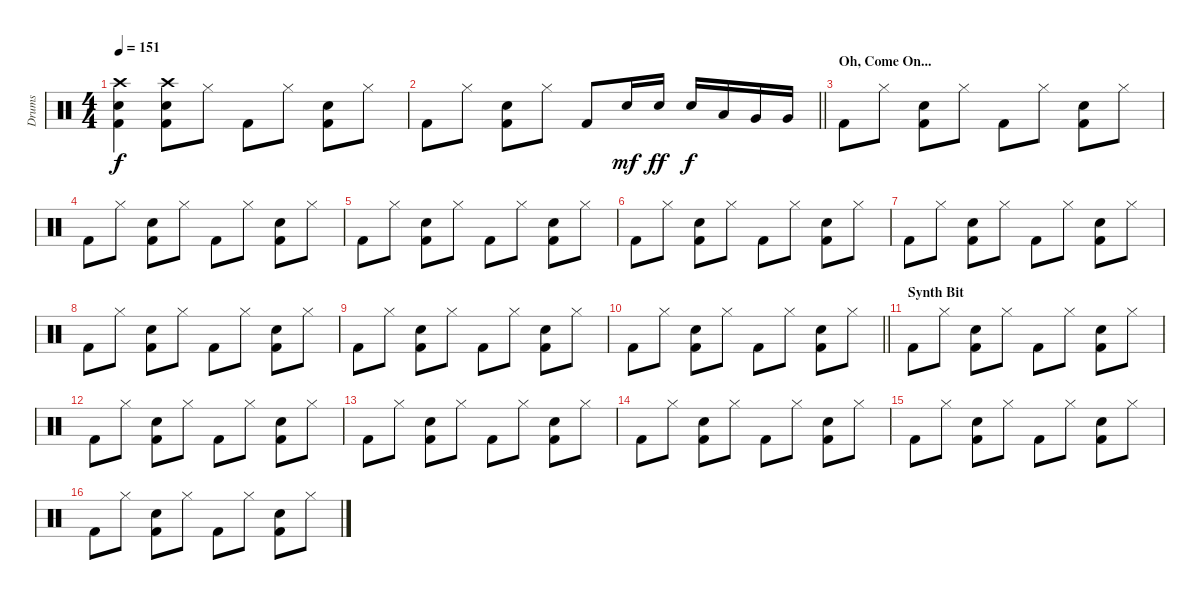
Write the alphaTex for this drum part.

\track ("Drums" "Drums") {instrument percussion}
\staff {score}
\articulation defaults
\ts (4 4)
\tempo 151
\clef neutral
\ks c
("Crash high (hit)" "Electric Snare (hit)" "Kick (hit) 2").4{dy f} ("Crash high (hit)" "Electric Snare (hit)" "Kick (hit) 2").8 "Hi-Hat (closed)".8 "Kick (hit) 2".8 "Hi-Hat (closed)".8 ("Electric Snare (hit)" "Kick (hit) 2").8 "Hi-Hat (closed)".8 |
\barLineRight lightlight "Kick (hit) 2".8 "Hi-Hat (closed)".8
("Electric Snare (hit)" "Kick (hit) 2").8 "Hi-Hat (closed)".8 "Kick (hit) 2".8 "Electric Snare (hit)".16{dy mf} "Electric Snare (hit)".16{dy ff} "Electric Snare (hit)".16{dy f} "Low Tom (hit)".16 "Very Low Tom (hit)".16 "Very Low Tom (hit)".16 |
\section ("" "Oh, Come On...")
"Kick (hit) 2".8 "Hi-Hat (closed)".8 ("Electric Snare (hit)" "Kick (hit) 2").8 "Hi-Hat (closed)".8 "Kick (hit) 2".8 "Hi-Hat (closed)".8 ("Electric Snare (hit)" "Kick (hit) 2").8 "Hi-Hat (closed)".8 |
"Kick (hit) 2".8 "Hi-Hat (closed)".8 ("Electric Snare (hit)" "Kick (hit) 2").8 "Hi-Hat (closed)".8 "Kick (hit) 2".8 "Hi-Hat (closed)".8 ("Electric Snare (hit)" "Kick (hit) 2").8 "Hi-Hat (closed)".8 |
"Kick (hit) 2".8 "Hi-Hat (closed)".8 ("Electric Snare (hit)" "Kick (hit) 2").8 "Hi-Hat (closed)".8 "Kick (hit) 2".8 "Hi-Hat (closed)".8 ("Electric Snare (hit)" "Kick (hit) 2").8 "Hi-Hat (closed)".8 |
"Kick (hit) 2".8 "Hi-Hat (closed)".8 ("Electric Snare (hit)" "Kick (hit) 2").8 "Hi-Hat (closed)".8 "Kick (hit) 2".8 "Hi-Hat (closed)".8 ("Electric Snare (hit)" "Kick (hit) 2").8 "Hi-Hat (closed)".8 |
"Kick (hit) 2".8 "Hi-Hat (closed)".8 ("Electric Snare (hit)" "Kick (hit) 2").8 "Hi-Hat (closed)".8 "Kick (hit) 2".8 "Hi-Hat (closed)".8 ("Electric Snare (hit)" "Kick (hit) 2").8 "Hi-Hat (closed)".8 |
"Kick (hit) 2".8 "Hi-Hat (closed)".8 ("Electric Snare (hit)" "Kick (hit) 2").8 "Hi-Hat (closed)".8 "Kick (hit) 2".8 "Hi-Hat (closed)".8 ("Electric Snare (hit)" "Kick (hit) 2").8 "Hi-Hat (closed)".8 |
"Kick (hit) 2".8 "Hi-Hat (closed)".8 ("Electric Snare (hit)" "Kick (hit) 2").8 "Hi-Hat (closed)".8 "Kick (hit) 2".8 "Hi-Hat (closed)".8 ("Electric Snare (hit)" "Kick (hit) 2").8 "Hi-Hat (closed)".8 |
\barLineRight lightlight "Kick (hit) 2".8 "Hi-Hat (closed)".8
("Electric Snare (hit)" "Kick (hit) 2").8 "Hi-Hat (closed)".8 "Kick (hit) 2".8 "Hi-Hat (closed)".8 ("Electric Snare (hit)" "Kick (hit) 2").8 "Hi-Hat (closed)".8 |
\section ("" "Synth Bit")
"Kick (hit) 2".8 "Hi-Hat (closed)".8 ("Electric Snare (hit)" "Kick (hit) 2").8 "Hi-Hat (closed)".8 "Kick (hit) 2".8 "Hi-Hat (closed)".8 ("Electric Snare (hit)" "Kick (hit) 2").8 "Hi-Hat (closed)".8 |
"Kick (hit) 2".8 "Hi-Hat (closed)".8 ("Electric Snare (hit)" "Kick (hit) 2").8 "Hi-Hat (closed)".8 "Kick (hit) 2".8 "Hi-Hat (closed)".8 ("Electric Snare (hit)" "Kick (hit) 2").8 "Hi-Hat (closed)".8 |
"Kick (hit) 2".8 "Hi-Hat (closed)".8 ("Electric Snare (hit)" "Kick (hit) 2").8 "Hi-Hat (closed)".8 "Kick (hit) 2".8 "Hi-Hat (closed)".8 ("Electric Snare (hit)" "Kick (hit) 2").8 "Hi-Hat (closed)".8 |
"Kick (hit) 2".8 "Hi-Hat (closed)".8 ("Electric Snare (hit)" "Kick (hit) 2").8 "Hi-Hat (closed)".8 "Kick (hit) 2".8 "Hi-Hat (closed)".8 ("Electric Snare (hit)" "Kick (hit) 2").8 "Hi-Hat (closed)".8 |
"Kick (hit) 2".8 "Hi-Hat (closed)".8 ("Electric Snare (hit)" "Kick (hit) 2").8 "Hi-Hat (closed)".8 "Kick (hit) 2".8 "Hi-Hat (closed)".8 ("Electric Snare (hit)" "Kick (hit) 2").8 "Hi-Hat (closed)".8 |
"Kick (hit) 2".8 "Hi-Hat (closed)".8 ("Electric Snare (hit)" "Kick (hit) 2").8 "Hi-Hat (closed)".8 "Kick (hit) 2".8 "Hi-Hat (closed)".8 ("Electric Snare (hit)" "Kick (hit) 2").8 "Hi-Hat (closed)".8
